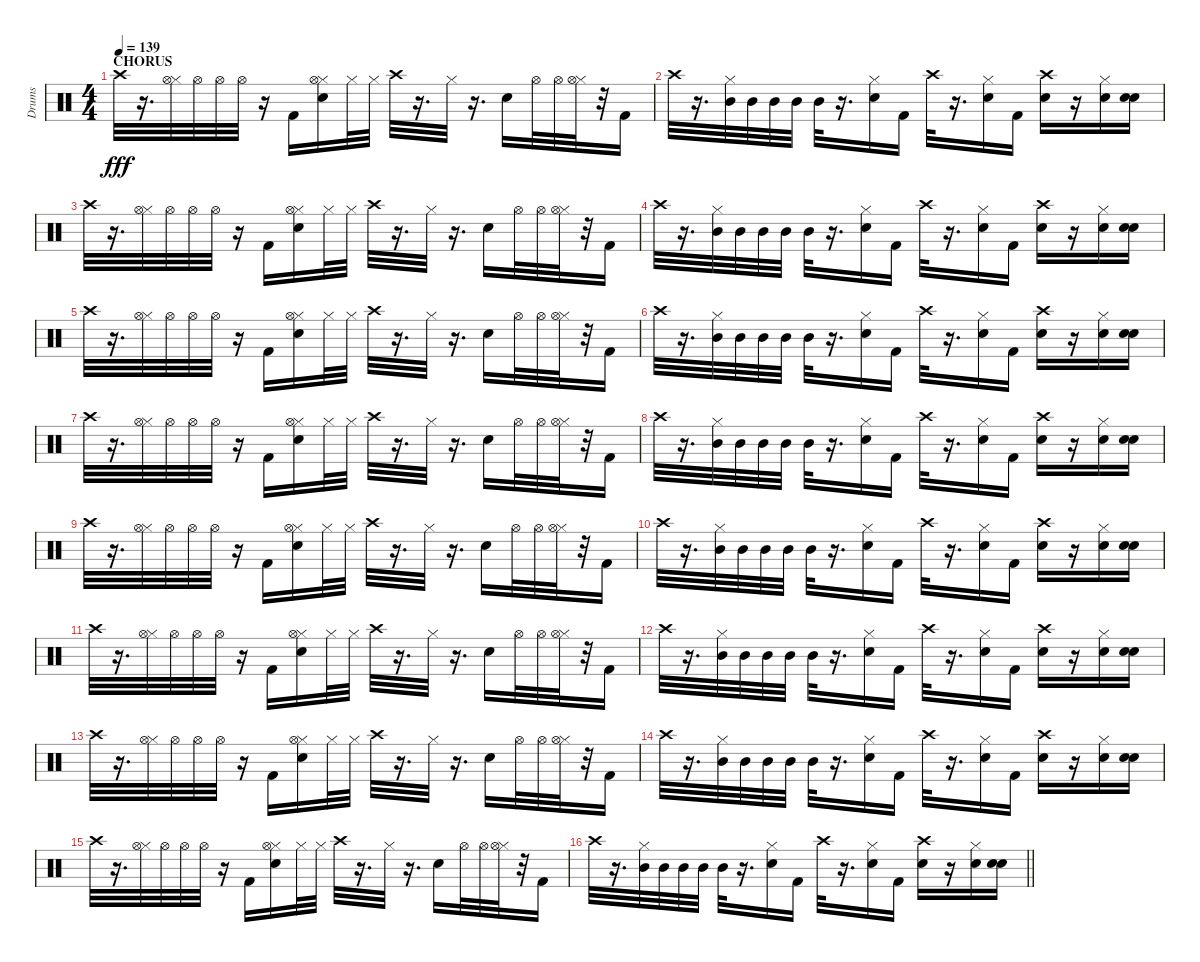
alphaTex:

\track ("Drums" "Drums") {instrument percussion}
\staff {score}
\articulation defaults
\ts (4 4)
\section ("" "CHORUS")
\tempo 139
\clef neutral
\ks c "Crash high (hit)".32{dy fff}
r.16{d} ("Hi-Hat (closed)" "Hi-Hat (open)").32 "Hi-Hat (open)".32 "Hi-Hat (open)".32 "Hi-Hat (open)".32 r.16 "Kick (hit) 2".16 ("Snare (hit) 2" "Hi-Hat (closed)" "Hi-Hat (open)").16 "Hi-Hat (closed)".32 "Hi-Hat (closed)".32 "Crash high (hit)".32 r.16{d} "Hi-Hat (closed)".32 r.16{d} "Snare (hit) 2".16 "Hi-Hat (open)".32 "Hi-Hat (open)".32 ("Hi-Hat (closed)" "Hi-Hat (open)").32 r.32 "Kick (hit) 2".16 |
"Crash high (hit)".32 r.16{d} ("Hi-Hat (closed)" "Mid Tom (hit)").32 "Mid Tom (hit)".32 "Mid Tom (hit)".32 "Mid Tom (hit)".32 "Mid Tom (hit)".32 r.16{d} ("Snare (hit) 2" "Hi-Hat (closed)").16 "Kick (hit) 2".16 "Crash high (hit)".32 r.16{d} ("Snare (hit) 2" "Hi-Hat (closed)").16 "Kick (hit) 2".16 ("Snare (hit) 2" "Crash high (hit)").16 r.16 ("Snare (hit) 2" "Hi-Hat (closed)").16 ("Snare (hit) 2" "Snare (hit) 2").16 |
"Crash high (hit)".32 r.16{d} ("Hi-Hat (closed)" "Hi-Hat (open)").32 "Hi-Hat (open)".32 "Hi-Hat (open)".32 "Hi-Hat (open)".32 r.16 "Kick (hit) 2".16 ("Snare (hit) 2" "Hi-Hat (closed)" "Hi-Hat (open)").16 "Hi-Hat (closed)".32 "Hi-Hat (closed)".32 "Crash high (hit)".32 r.16{d} "Hi-Hat (closed)".32 r.16{d} "Snare (hit) 2".16 "Hi-Hat (open)".32 "Hi-Hat (open)".32 ("Hi-Hat (closed)" "Hi-Hat (open)").32 r.32 "Kick (hit) 2".16 |
"Crash high (hit)".32 r.16{d} ("Hi-Hat (closed)" "Mid Tom (hit)").32 "Mid Tom (hit)".32 "Mid Tom (hit)".32 "Mid Tom (hit)".32 "Mid Tom (hit)".32 r.16{d} ("Snare (hit) 2" "Hi-Hat (closed)").16 "Kick (hit) 2".16 "Crash high (hit)".32 r.16{d} ("Snare (hit) 2" "Hi-Hat (closed)").16 "Kick (hit) 2".16 ("Snare (hit) 2" "Crash high (hit)").16 r.16 ("Snare (hit) 2" "Hi-Hat (closed)").16 ("Snare (hit) 2" "Snare (hit) 2").16 |
"Crash high (hit)".32 r.16{d} ("Hi-Hat (closed)" "Hi-Hat (open)").32 "Hi-Hat (open)".32 "Hi-Hat (open)".32 "Hi-Hat (open)".32 r.16 "Kick (hit) 2".16 ("Snare (hit) 2" "Hi-Hat (closed)" "Hi-Hat (open)").16 "Hi-Hat (closed)".32 "Hi-Hat (closed)".32 "Crash high (hit)".32 r.16{d} "Hi-Hat (closed)".32 r.16{d} "Snare (hit) 2".16 "Hi-Hat (open)".32 "Hi-Hat (open)".32 ("Hi-Hat (closed)" "Hi-Hat (open)").32 r.32 "Kick (hit) 2".16 |
"Crash high (hit)".32 r.16{d} ("Hi-Hat (closed)" "Mid Tom (hit)").32 "Mid Tom (hit)".32 "Mid Tom (hit)".32 "Mid Tom (hit)".32 "Mid Tom (hit)".32 r.16{d} ("Snare (hit) 2" "Hi-Hat (closed)").16 "Kick (hit) 2".16 "Crash high (hit)".32 r.16{d} ("Snare (hit) 2" "Hi-Hat (closed)").16 "Kick (hit) 2".16 ("Snare (hit) 2" "Crash high (hit)").16 r.16 ("Snare (hit) 2" "Hi-Hat (closed)").16 ("Snare (hit) 2" "Snare (hit) 2").16 |
"Crash high (hit)".32 r.16{d} ("Hi-Hat (closed)" "Hi-Hat (open)").32 "Hi-Hat (open)".32 "Hi-Hat (open)".32 "Hi-Hat (open)".32 r.16 "Kick (hit) 2".16 ("Snare (hit) 2" "Hi-Hat (closed)" "Hi-Hat (open)").16 "Hi-Hat (closed)".32 "Hi-Hat (closed)".32 "Crash high (hit)".32 r.16{d} "Hi-Hat (closed)".32 r.16{d} "Snare (hit) 2".16 "Hi-Hat (open)".32 "Hi-Hat (open)".32 ("Hi-Hat (closed)" "Hi-Hat (open)").32 r.32 "Kick (hit) 2".16 |
"Crash high (hit)".32 r.16{d} ("Hi-Hat (closed)" "Mid Tom (hit)").32 "Mid Tom (hit)".32 "Mid Tom (hit)".32 "Mid Tom (hit)".32 "Mid Tom (hit)".32 r.16{d} ("Snare (hit) 2" "Hi-Hat (closed)").16 "Kick (hit) 2".16 "Crash high (hit)".32 r.16{d} ("Snare (hit) 2" "Hi-Hat (closed)").16 "Kick (hit) 2".16 ("Snare (hit) 2" "Crash high (hit)").16 r.16 ("Snare (hit) 2" "Hi-Hat (closed)").16 ("Snare (hit) 2" "Snare (hit) 2").16 |
"Crash high (hit)".32 r.16{d} ("Hi-Hat (closed)" "Hi-Hat (open)").32 "Hi-Hat (open)".32 "Hi-Hat (open)".32 "Hi-Hat (open)".32 r.16 "Kick (hit) 2".16 ("Snare (hit) 2" "Hi-Hat (closed)" "Hi-Hat (open)").16 "Hi-Hat (closed)".32 "Hi-Hat (closed)".32 "Crash high (hit)".32 r.16{d} "Hi-Hat (closed)".32 r.16{d} "Snare (hit) 2".16 "Hi-Hat (open)".32 "Hi-Hat (open)".32 ("Hi-Hat (closed)" "Hi-Hat (open)").32 r.32 "Kick (hit) 2".16 |
"Crash high (hit)".32 r.16{d} ("Hi-Hat (closed)" "Mid Tom (hit)").32 "Mid Tom (hit)".32 "Mid Tom (hit)".32 "Mid Tom (hit)".32 "Mid Tom (hit)".32 r.16{d} ("Snare (hit) 2" "Hi-Hat (closed)").16 "Kick (hit) 2".16 "Crash high (hit)".32 r.16{d} ("Snare (hit) 2" "Hi-Hat (closed)").16 "Kick (hit) 2".16 ("Snare (hit) 2" "Crash high (hit)").16 r.16 ("Snare (hit) 2" "Hi-Hat (closed)").16 ("Snare (hit) 2" "Snare (hit) 2").16 |
"Crash high (hit)".32 r.16{d} ("Hi-Hat (closed)" "Hi-Hat (open)").32 "Hi-Hat (open)".32 "Hi-Hat (open)".32 "Hi-Hat (open)".32 r.16 "Kick (hit) 2".16 ("Snare (hit) 2" "Hi-Hat (closed)" "Hi-Hat (open)").16 "Hi-Hat (closed)".32 "Hi-Hat (closed)".32 "Crash high (hit)".32 r.16{d} "Hi-Hat (closed)".32 r.16{d} "Snare (hit) 2".16 "Hi-Hat (open)".32 "Hi-Hat (open)".32 ("Hi-Hat (closed)" "Hi-Hat (open)").32 r.32 "Kick (hit) 2".16 |
"Crash high (hit)".32 r.16{d} ("Hi-Hat (closed)" "Mid Tom (hit)").32 "Mid Tom (hit)".32 "Mid Tom (hit)".32 "Mid Tom (hit)".32 "Mid Tom (hit)".32 r.16{d} ("Snare (hit) 2" "Hi-Hat (closed)").16 "Kick (hit) 2".16 "Crash high (hit)".32 r.16{d} ("Snare (hit) 2" "Hi-Hat (closed)").16 "Kick (hit) 2".16 ("Snare (hit) 2" "Crash high (hit)").16 r.16 ("Snare (hit) 2" "Hi-Hat (closed)").16 ("Snare (hit) 2" "Snare (hit) 2").16 |
"Crash high (hit)".32 r.16{d} ("Hi-Hat (closed)" "Hi-Hat (open)").32 "Hi-Hat (open)".32 "Hi-Hat (open)".32 "Hi-Hat (open)".32 r.16 "Kick (hit) 2".16 ("Snare (hit) 2" "Hi-Hat (closed)" "Hi-Hat (open)").16 "Hi-Hat (closed)".32 "Hi-Hat (closed)".32 "Crash high (hit)".32 r.16{d} "Hi-Hat (closed)".32 r.16{d} "Snare (hit) 2".16 "Hi-Hat (open)".32 "Hi-Hat (open)".32 ("Hi-Hat (closed)" "Hi-Hat (open)").32 r.32 "Kick (hit) 2".16 |
"Crash high (hit)".32 r.16{d} ("Hi-Hat (closed)" "Mid Tom (hit)").32 "Mid Tom (hit)".32 "Mid Tom (hit)".32 "Mid Tom (hit)".32 "Mid Tom (hit)".32 r.16{d} ("Snare (hit) 2" "Hi-Hat (closed)").16 "Kick (hit) 2".16 "Crash high (hit)".32 r.16{d} ("Snare (hit) 2" "Hi-Hat (closed)").16 "Kick (hit) 2".16 ("Snare (hit) 2" "Crash high (hit)").16 r.16 ("Snare (hit) 2" "Hi-Hat (closed)").16 ("Snare (hit) 2" "Snare (hit) 2").16 |
"Crash high (hit)".32 r.16{d} ("Hi-Hat (closed)" "Hi-Hat (open)").32 "Hi-Hat (open)".32 "Hi-Hat (open)".32 "Hi-Hat (open)".32 r.16 "Kick (hit) 2".16 ("Snare (hit) 2" "Hi-Hat (closed)" "Hi-Hat (open)").16 "Hi-Hat (closed)".32 "Hi-Hat (closed)".32 "Crash high (hit)".32 r.16{d} "Hi-Hat (closed)".32 r.16{d} "Snare (hit) 2".16 "Hi-Hat (open)".32 "Hi-Hat (open)".32 ("Hi-Hat (closed)" "Hi-Hat (open)").32 r.32 "Kick (hit) 2".16 |
\barLineRight lightlight "Crash high (hit)".32
r.16{d} ("Hi-Hat (closed)" "Mid Tom (hit)").32 "Mid Tom (hit)".32 "Mid Tom (hit)".32 "Mid Tom (hit)".32 "Mid Tom (hit)".32 r.16{d} ("Snare (hit) 2" "Hi-Hat (closed)").16 "Kick (hit) 2".16 "Crash high (hit)".32 r.16{d} ("Snare (hit) 2" "Hi-Hat (closed)").16 "Kick (hit) 2".16 ("Snare (hit) 2" "Crash high (hit)").16 r.16 ("Snare (hit) 2" "Hi-Hat (closed)").16 ("Snare (hit) 2" "Snare (hit) 2").16
